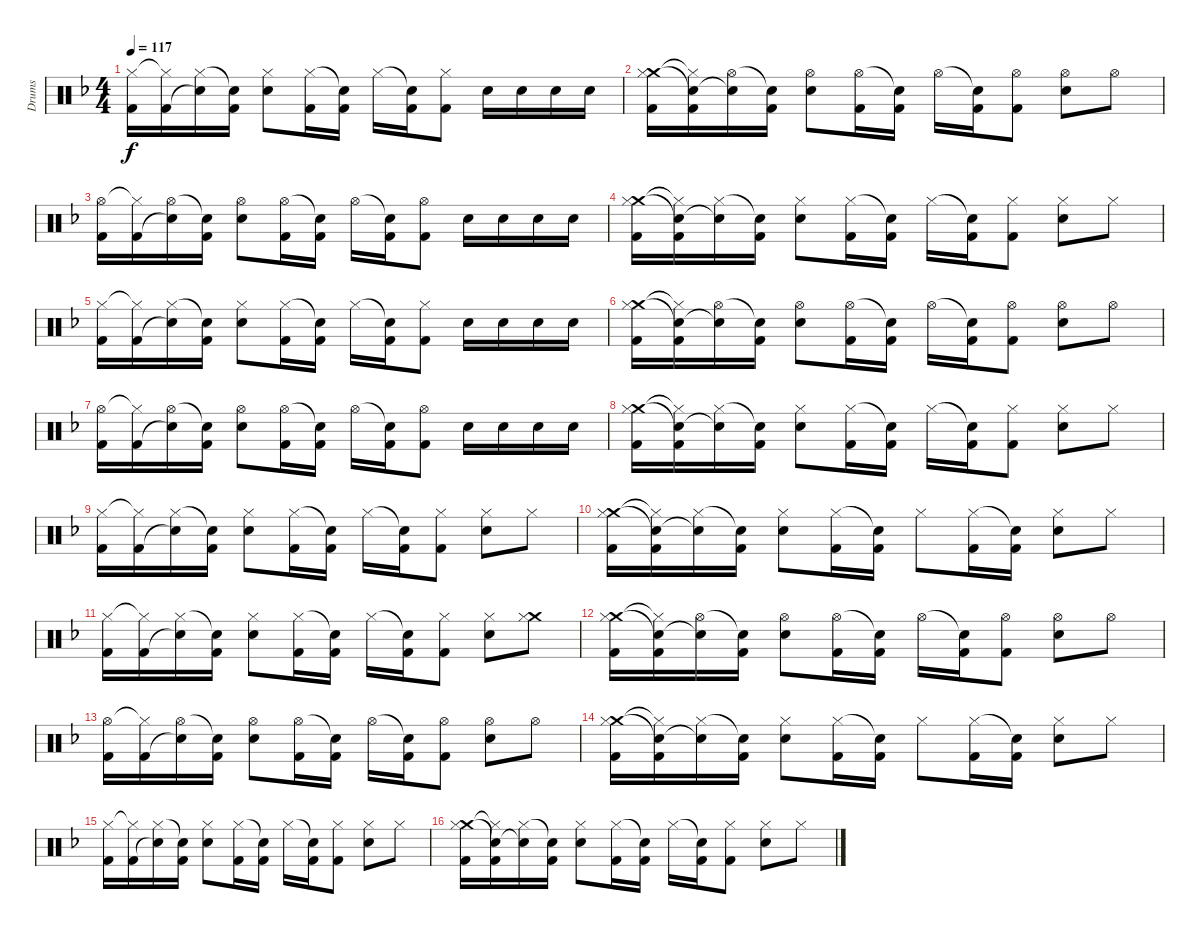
\track ("Drums" "Drums") {instrument percussion}
\staff {score}
\articulation defaults
\ts (4 4)
\tempo 117
\clef neutral
\ks dminor
("Hi-Hat (closed)" "Kick (hit) 2").16{dy f} ("Hi-Hat (closed)"{t} "Kick (hit) 2").16 ("Hi-Hat (closed)" "Snare (hit)"{t}).16 ("Snare (hit)"{t} "Kick (hit) 2").16 ("Hi-Hat (closed)" "Electric Snare (hit)").8 ("Hi-Hat (closed)" "Kick (hit) 2").16 ("Snare (hit)"{t} "Kick (hit) 2").16 "Hi-Hat (closed)".16 ("Snare (hit)"{t} "Kick (hit) 2").16 ("Hi-Hat (closed)" "Kick (hit) 2").8 "Electric Snare (hit)".16 "Electric Snare (hit)".16 "Electric Snare (hit)".16 "Electric Snare (hit)".16 |
("Crash medium (hit)" "Hi-Hat (closed)" "Kick (hit) 2").16 ("Hi-Hat (closed)"{t} "Snare (hit)"{t} "Kick (hit) 2").16 ("Hi-Hat (open)" "Snare (hit)"{t}).16 ("Snare (hit)"{t} "Kick (hit) 2").16 ("Hi-Hat (open)" "Electric Snare (hit)").8 ("Hi-Hat (open)" "Kick (hit) 2").16 ("Snare (hit)"{t} "Kick (hit) 2").16 "Hi-Hat (open)".16 ("Snare (hit)"{t} "Kick (hit) 2").16 ("Hi-Hat (open)" "Kick (hit) 2").8 ("Hi-Hat (open)" "Electric Snare (hit)").8 "Hi-Hat (open)".8 |
("Hi-Hat (open)" "Kick (hit) 2").16 ("Hi-Hat (closed)"{t} "Kick (hit) 2").16 ("Hi-Hat (open)" "Snare (hit)"{t}).16 ("Snare (hit)"{t} "Kick (hit) 2").16 ("Hi-Hat (open)" "Electric Snare (hit)").8 ("Hi-Hat (open)" "Kick (hit) 2").16 ("Snare (hit)"{t} "Kick (hit) 2").16 "Hi-Hat (open)".16 ("Snare (hit)"{t} "Kick (hit) 2").16 ("Hi-Hat (open)" "Kick (hit) 2").8 "Electric Snare (hit)".16 "Electric Snare (hit)".16 "Electric Snare (hit)".16 "Electric Snare (hit)".16 |
("Crash medium (hit)" "Hi-Hat (closed)" "Kick (hit) 2").16 ("Hi-Hat (closed)"{t} "Snare (hit)"{t} "Kick (hit) 2").16 ("Hi-Hat (closed)" "Snare (hit)"{t}).16 ("Snare (hit)"{t} "Kick (hit) 2").16 ("Hi-Hat (closed)" "Electric Snare (hit)").8 ("Hi-Hat (closed)" "Kick (hit) 2").16 ("Snare (hit)"{t} "Kick (hit) 2").16 "Hi-Hat (closed)".16 ("Snare (hit)"{t} "Kick (hit) 2").16 ("Hi-Hat (closed)" "Kick (hit) 2").8 ("Hi-Hat (closed)" "Electric Snare (hit)").8 "Hi-Hat (closed)".8 |
("Hi-Hat (closed)" "Kick (hit) 2").16 ("Hi-Hat (closed)"{t} "Kick (hit) 2").16 ("Hi-Hat (closed)" "Snare (hit)"{t}).16 ("Snare (hit)"{t} "Kick (hit) 2").16 ("Hi-Hat (closed)" "Electric Snare (hit)").8 ("Hi-Hat (closed)" "Kick (hit) 2").16 ("Snare (hit)"{t} "Kick (hit) 2").16 "Hi-Hat (closed)".16 ("Snare (hit)"{t} "Kick (hit) 2").16 ("Hi-Hat (closed)" "Kick (hit) 2").8 "Electric Snare (hit)".16 "Electric Snare (hit)".16 "Electric Snare (hit)".16 "Electric Snare (hit)".16 |
("Crash medium (hit)" "Hi-Hat (closed)" "Kick (hit) 2").16 ("Hi-Hat (closed)"{t} "Snare (hit)"{t} "Kick (hit) 2").16 ("Hi-Hat (open)" "Snare (hit)"{t}).16 ("Snare (hit)"{t} "Kick (hit) 2").16 ("Hi-Hat (open)" "Electric Snare (hit)").8 ("Hi-Hat (open)" "Kick (hit) 2").16 ("Snare (hit)"{t} "Kick (hit) 2").16 "Hi-Hat (open)".16 ("Snare (hit)"{t} "Kick (hit) 2").16 ("Hi-Hat (open)" "Kick (hit) 2").8 ("Hi-Hat (open)" "Electric Snare (hit)").8 "Hi-Hat (open)".8 |
("Hi-Hat (open)" "Kick (hit) 2").16 ("Hi-Hat (closed)"{t} "Kick (hit) 2").16 ("Hi-Hat (open)" "Snare (hit)"{t}).16 ("Snare (hit)"{t} "Kick (hit) 2").16 ("Hi-Hat (open)" "Electric Snare (hit)").8 ("Hi-Hat (open)" "Kick (hit) 2").16 ("Snare (hit)"{t} "Kick (hit) 2").16 "Hi-Hat (open)".16 ("Snare (hit)"{t} "Kick (hit) 2").16 ("Hi-Hat (open)" "Kick (hit) 2").8 "Electric Snare (hit)".16 "Electric Snare (hit)".16 "Electric Snare (hit)".16 "Electric Snare (hit)".16 |
("Crash medium (hit)" "Hi-Hat (closed)" "Kick (hit) 2").16 ("Hi-Hat (closed)"{t} "Snare (hit)"{t} "Kick (hit) 2").16 ("Hi-Hat (closed)" "Snare (hit)"{t}).16 ("Snare (hit)"{t} "Kick (hit) 2").16 ("Hi-Hat (closed)" "Electric Snare (hit)").8 ("Hi-Hat (closed)" "Kick (hit) 2").16 ("Snare (hit)"{t} "Kick (hit) 2").16 "Hi-Hat (closed)".16 ("Snare (hit)"{t} "Kick (hit) 2").16 ("Hi-Hat (closed)" "Kick (hit) 2").8 ("Hi-Hat (closed)" "Electric Snare (hit)").8 "Hi-Hat (closed)".8 |
("Hi-Hat (closed)" "Kick (hit) 2").16 ("Hi-Hat (closed)"{t} "Kick (hit) 2").16 ("Hi-Hat (closed)" "Snare (hit)"{t}).16 ("Snare (hit)"{t} "Kick (hit) 2").16 ("Hi-Hat (closed)" "Electric Snare (hit)").8 ("Hi-Hat (closed)" "Kick (hit) 2").16 ("Snare (hit)"{t} "Kick (hit) 2").16 "Hi-Hat (closed)".16 ("Snare (hit)"{t} "Kick (hit) 2").16 ("Hi-Hat (closed)" "Kick (hit) 2").8 ("Hi-Hat (closed)" "Electric Snare (hit)").8 "Hi-Hat (closed)".8 |
("Crash medium (hit)" "Hi-Hat (closed)" "Kick (hit) 2").16 ("Hi-Hat (closed)"{t} "Snare (hit)"{t} "Kick (hit) 2").16 ("Hi-Hat (closed)" "Snare (hit)"{t}).16 ("Snare (hit)"{t} "Kick (hit) 2").16 ("Hi-Hat (closed)" "Electric Snare (hit)").8 ("Hi-Hat (closed)" "Kick (hit) 2").16 ("Snare (hit)"{t} "Kick (hit) 2").16 "Hi-Hat (closed)".8 ("Hi-Hat (closed)" "Kick (hit) 2").16 ("Snare (hit)"{t} "Kick (hit) 2").16 ("Hi-Hat (closed)" "Electric Snare (hit)").8 "Hi-Hat (closed)".8 |
("Hi-Hat (closed)" "Kick (hit) 2").16 ("Hi-Hat (closed)"{t} "Kick (hit) 2").16 ("Hi-Hat (closed)" "Snare (hit)"{t}).16 ("Snare (hit)"{t} "Kick (hit) 2").16 ("Hi-Hat (closed)" "Electric Snare (hit)").8 ("Hi-Hat (closed)" "Kick (hit) 2").16 ("Snare (hit)"{t} "Kick (hit) 2").16 "Hi-Hat (closed)".16 ("Snare (hit)"{t} "Kick (hit) 2").16 ("Hi-Hat (closed)" "Kick (hit) 2").8 ("Hi-Hat (closed)" "Electric Snare (hit)").8 ("Crash medium (hit)" "Hi-Hat (closed)").8 |
("Crash medium (hit)" "Hi-Hat (closed)" "Kick (hit) 2").16 ("Hi-Hat (closed)"{t} "Snare (hit)"{t} "Kick (hit) 2").16 ("Hi-Hat (open)" "Snare (hit)"{t}).16 ("Snare (hit)"{t} "Kick (hit) 2").16 ("Hi-Hat (open)" "Electric Snare (hit)").8 ("Hi-Hat (open)" "Kick (hit) 2").16 ("Snare (hit)"{t} "Kick (hit) 2").16 "Hi-Hat (open)".16 ("Snare (hit)"{t} "Kick (hit) 2").16 ("Hi-Hat (open)" "Kick (hit) 2").8 ("Hi-Hat (open)" "Electric Snare (hit)").8 "Hi-Hat (open)".8 |
("Hi-Hat (open)" "Kick (hit) 2").16 ("Hi-Hat (closed)"{t} "Kick (hit) 2").16 ("Hi-Hat (open)" "Snare (hit)"{t}).16 ("Snare (hit)"{t} "Kick (hit) 2").16 ("Hi-Hat (open)" "Electric Snare (hit)").8 ("Hi-Hat (open)" "Kick (hit) 2").16 ("Snare (hit)"{t} "Kick (hit) 2").16 "Hi-Hat (open)".16 ("Snare (hit)"{t} "Kick (hit) 2").16 ("Hi-Hat (open)" "Kick (hit) 2").8 ("Hi-Hat (open)" "Electric Snare (hit)").8 "Hi-Hat (open)".8 |
("Crash medium (hit)" "Hi-Hat (closed)" "Kick (hit) 2").16 ("Hi-Hat (closed)"{t} "Snare (hit)"{t} "Kick (hit) 2").16 ("Hi-Hat (closed)" "Snare (hit)"{t}).16 ("Snare (hit)"{t} "Kick (hit) 2").16 ("Hi-Hat (closed)" "Electric Snare (hit)").8 ("Hi-Hat (closed)" "Kick (hit) 2").16 ("Snare (hit)"{t} "Kick (hit) 2").16 "Hi-Hat (closed)".8 ("Hi-Hat (closed)" "Kick (hit) 2").16 ("Snare (hit)"{t} "Kick (hit) 2").16 ("Hi-Hat (closed)" "Electric Snare (hit)").8 "Hi-Hat (closed)".8 |
("Hi-Hat (closed)" "Kick (hit) 2").16 ("Hi-Hat (closed)"{t} "Kick (hit) 2").16 ("Hi-Hat (closed)" "Snare (hit)"{t}).16 ("Snare (hit)"{t} "Kick (hit) 2").16 ("Hi-Hat (closed)" "Electric Snare (hit)").8 ("Hi-Hat (closed)" "Kick (hit) 2").16 ("Snare (hit)"{t} "Kick (hit) 2").16 "Hi-Hat (closed)".16 ("Snare (hit)"{t} "Kick (hit) 2").16 ("Hi-Hat (closed)" "Kick (hit) 2").8 ("Hi-Hat (closed)" "Electric Snare (hit)").8 "Hi-Hat (closed)".8 |
("Crash medium (hit)" "Hi-Hat (closed)" "Kick (hit) 2").16 ("Hi-Hat (closed)"{t} "Snare (hit)"{t} "Kick (hit) 2").16 ("Hi-Hat (closed)" "Snare (hit)"{t}).16 ("Snare (hit)"{t} "Kick (hit) 2").16 ("Hi-Hat (closed)" "Electric Snare (hit)").8 ("Hi-Hat (closed)" "Kick (hit) 2").16 ("Snare (hit)"{t} "Kick (hit) 2").16 "Hi-Hat (closed)".16 ("Snare (hit)"{t} "Kick (hit) 2").16 ("Hi-Hat (closed)" "Kick (hit) 2").8 ("Hi-Hat (closed)" "Electric Snare (hit)").8 "Hi-Hat (closed)".8
